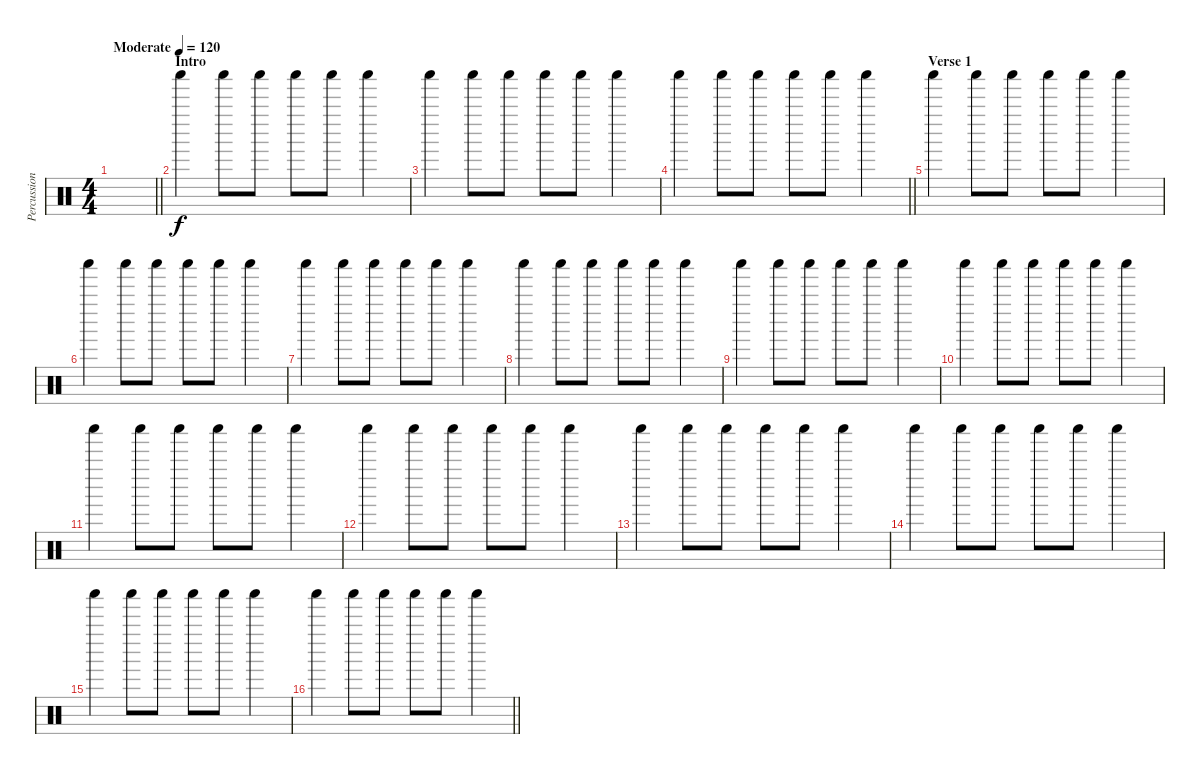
\track ("Percussion" "Percussion") {instrument percussion}
\staff {score}
\articulation defaults
\ts (4 4)
\tempo (120 "Moderate")
\clef neutral
\barLineRight lightlight
\ks c
|
\section ("" "Intro")
"Shaker (hit)".4 "Shaker (hit)".8 "Shaker (hit)".8 "Shaker (hit)".8 "Shaker (hit)".8 "Shaker (hit)".4 |
"Shaker (hit)".4 "Shaker (hit)".8 "Shaker (hit)".8 "Shaker (hit)".8 "Shaker (hit)".8 "Shaker (hit)".4 |
\barLineRight lightlight "Shaker (hit)".4 "Shaker (hit)".8 "Shaker (hit)".8 "Shaker (hit)".8 "Shaker (hit)".8 "Shaker (hit)".4
|
\section ("" "Verse 1")
"Shaker (hit)".4 "Shaker (hit)".8 "Shaker (hit)".8 "Shaker (hit)".8 "Shaker (hit)".8 "Shaker (hit)".4 |
"Shaker (hit)".4 "Shaker (hit)".8 "Shaker (hit)".8 "Shaker (hit)".8 "Shaker (hit)".8 "Shaker (hit)".4 |
"Shaker (hit)".4 "Shaker (hit)".8 "Shaker (hit)".8 "Shaker (hit)".8 "Shaker (hit)".8 "Shaker (hit)".4 |
"Shaker (hit)".4 "Shaker (hit)".8 "Shaker (hit)".8 "Shaker (hit)".8 "Shaker (hit)".8 "Shaker (hit)".4 |
"Shaker (hit)".4 "Shaker (hit)".8 "Shaker (hit)".8 "Shaker (hit)".8 "Shaker (hit)".8 "Shaker (hit)".4 |
"Shaker (hit)".4 "Shaker (hit)".8 "Shaker (hit)".8 "Shaker (hit)".8 "Shaker (hit)".8 "Shaker (hit)".4 |
"Shaker (hit)".4 "Shaker (hit)".8 "Shaker (hit)".8 "Shaker (hit)".8 "Shaker (hit)".8 "Shaker (hit)".4 |
"Shaker (hit)".4 "Shaker (hit)".8 "Shaker (hit)".8 "Shaker (hit)".8 "Shaker (hit)".8 "Shaker (hit)".4 |
"Shaker (hit)".4 "Shaker (hit)".8 "Shaker (hit)".8 "Shaker (hit)".8 "Shaker (hit)".8 "Shaker (hit)".4 |
"Shaker (hit)".4 "Shaker (hit)".8 "Shaker (hit)".8 "Shaker (hit)".8 "Shaker (hit)".8 "Shaker (hit)".4 |
"Shaker (hit)".4 "Shaker (hit)".8 "Shaker (hit)".8 "Shaker (hit)".8 "Shaker (hit)".8 "Shaker (hit)".4 |
\barLineRight lightlight "Shaker (hit)".4 "Shaker (hit)".8 "Shaker (hit)".8 "Shaker (hit)".8 "Shaker (hit)".8 "Shaker (hit)".4
